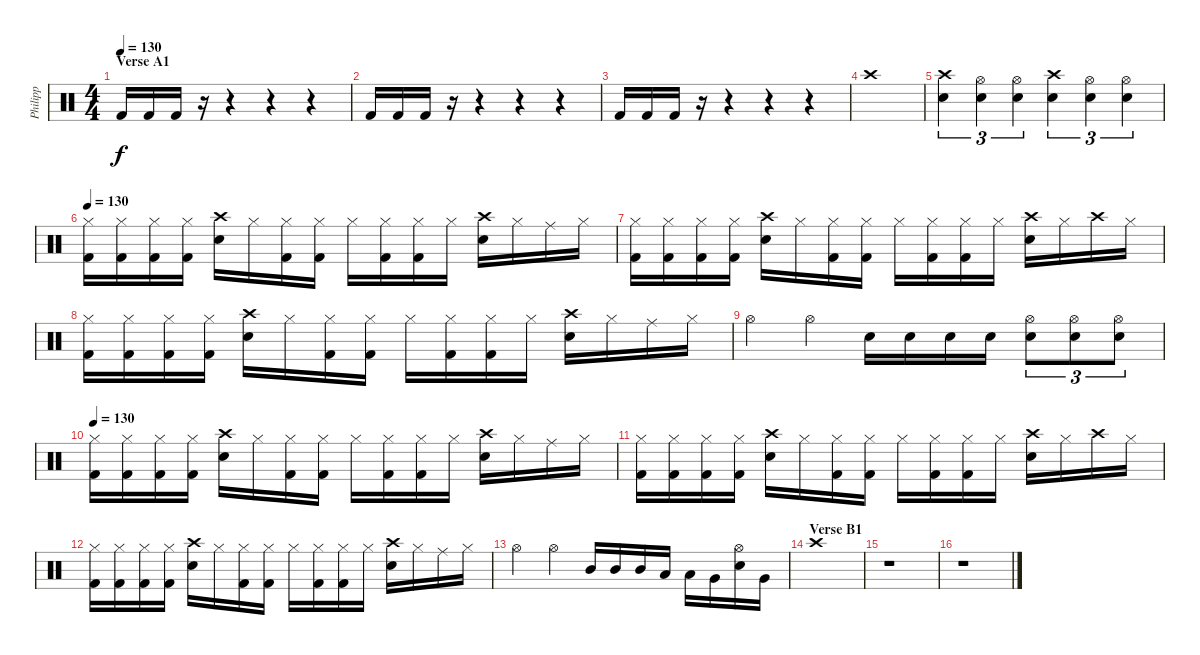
\track ("Philipp" "Philipp") {instrument percussion}
\staff {score}
\articulation defaults
\ts (4 4)
\section ("" "Verse A1")
\tempo 130
\clef neutral
\ks c "Kick (hit) 2".16{dy f} "Kick (hit) 2".16 "Kick (hit) 2".16
r.16 r.4 r.4 r.4 |
"Kick (hit) 2".16 "Kick (hit) 2".16 "Kick (hit) 2".16 r.16 r.4 r.4 r.4 |
"Kick (hit) 2".16 "Kick (hit) 2".16 "Kick (hit) 2".16 r.16 r.4 r.4 r.4 |
"Crash high (hit)".1 |
("Crash high (hit)" "Electric Snare (hit)").4{tu (3 2)} ("Hi-Hat (open)" "Electric Snare (hit)").4{tu (3 2)} ("Hi-Hat (open)" "Electric Snare (hit)").4{tu (3 2)} ("Crash high (hit)" "Electric Snare (hit)").4{tu (3 2)} ("Hi-Hat (open)" "Electric Snare (hit)").4{tu (3 2)} ("Hi-Hat (open)" "Electric Snare (hit)").4{tu (3 2)} |
\tempo 130
("Hi-Hat (closed)" "Kick (hit) 2").16 ("Hi-Hat (closed)" "Kick (hit) 2").16 ("Hi-Hat (closed)" "Kick (hit) 2").16 ("Hi-Hat (closed)" "Kick (hit) 2").16 ("Crash high (hit)" "Electric Snare (hit)").16 "Hi-Hat (closed)".16 ("Hi-Hat (closed)" "Kick (hit) 2").16 ("Hi-Hat (closed)" "Kick (hit) 2").16 "Hi-Hat (closed)".16 ("Hi-Hat (closed)" "Kick (hit) 2").16 ("Hi-Hat (closed)" "Kick (hit) 2").16 "Hi-Hat (closed)".16 ("Crash high (hit)" "Electric Snare (hit)").16 "Hi-Hat (closed)".16 "Ride (middle)".16 "Hi-Hat (closed)".16 |
("Hi-Hat (closed)" "Kick (hit) 2").16 ("Hi-Hat (closed)" "Kick (hit) 2").16 ("Hi-Hat (closed)" "Kick (hit) 2").16 ("Hi-Hat (closed)" "Kick (hit) 2").16 ("Crash high (hit)" "Electric Snare (hit)").16 "Hi-Hat (closed)".16 ("Hi-Hat (closed)" "Kick (hit) 2").16 ("Hi-Hat (closed)" "Kick (hit) 2").16 "Hi-Hat (closed)".16 ("Hi-Hat (closed)" "Kick (hit) 2").16 ("Hi-Hat (closed)" "Kick (hit) 2").16 "Hi-Hat (closed)".16 ("Crash high (hit)" "Electric Snare (hit)").16 "Hi-Hat (closed)".16 "Crash high (hit)".16 "Hi-Hat (closed)".16 |
("Hi-Hat (closed)" "Kick (hit) 2").16 ("Hi-Hat (closed)" "Kick (hit) 2").16 ("Hi-Hat (closed)" "Kick (hit) 2").16 ("Hi-Hat (closed)" "Kick (hit) 2").16 ("Crash high (hit)" "Electric Snare (hit)").16 "Hi-Hat (closed)".16 ("Hi-Hat (closed)" "Kick (hit) 2").16 ("Hi-Hat (closed)" "Kick (hit) 2").16 "Hi-Hat (closed)".16 ("Hi-Hat (closed)" "Kick (hit) 2").16 ("Hi-Hat (closed)" "Kick (hit) 2").16 "Hi-Hat (closed)".16 ("Crash high (hit)" "Electric Snare (hit)").16 "Hi-Hat (closed)".16 "Ride (middle)".16 "Hi-Hat (closed)".16 |
"Hi-Hat (open)".4 "Hi-Hat (open)".4 "Electric Snare (hit)".16 "Electric Snare (hit)".16 "Electric Snare (hit)".16 "Electric Snare (hit)".16 ("Hi-Hat (open)" "Electric Snare (hit)").8{tu (3 2)} ("Hi-Hat (open)" "Electric Snare (hit)").8{tu (3 2)} ("Hi-Hat (open)" "Electric Snare (hit)").8{tu (3 2)} |
\tempo 130
("Hi-Hat (closed)" "Kick (hit) 2").16 ("Hi-Hat (closed)" "Kick (hit) 2").16 ("Hi-Hat (closed)" "Kick (hit) 2").16 ("Hi-Hat (closed)" "Kick (hit) 2").16 ("Crash high (hit)" "Electric Snare (hit)").16 "Hi-Hat (closed)".16 ("Hi-Hat (closed)" "Kick (hit) 2").16 ("Hi-Hat (closed)" "Kick (hit) 2").16 "Hi-Hat (closed)".16 ("Hi-Hat (closed)" "Kick (hit) 2").16 ("Hi-Hat (closed)" "Kick (hit) 2").16 "Hi-Hat (closed)".16 ("Crash high (hit)" "Electric Snare (hit)").16 "Hi-Hat (closed)".16 "Ride (middle)".16 "Hi-Hat (closed)".16 |
("Hi-Hat (closed)" "Kick (hit) 2").16 ("Hi-Hat (closed)" "Kick (hit) 2").16 ("Hi-Hat (closed)" "Kick (hit) 2").16 ("Hi-Hat (closed)" "Kick (hit) 2").16 ("Crash high (hit)" "Electric Snare (hit)").16 "Hi-Hat (closed)".16 ("Hi-Hat (closed)" "Kick (hit) 2").16 ("Hi-Hat (closed)" "Kick (hit) 2").16 "Hi-Hat (closed)".16 ("Hi-Hat (closed)" "Kick (hit) 2").16 ("Hi-Hat (closed)" "Kick (hit) 2").16 "Hi-Hat (closed)".16 ("Crash high (hit)" "Electric Snare (hit)").16 "Hi-Hat (closed)".16 "Crash high (hit)".16 "Hi-Hat (closed)".16 |
("Hi-Hat (closed)" "Kick (hit) 2").16 ("Hi-Hat (closed)" "Kick (hit) 2").16 ("Hi-Hat (closed)" "Kick (hit) 2").16 ("Hi-Hat (closed)" "Kick (hit) 2").16 ("Crash high (hit)" "Electric Snare (hit)").16 "Hi-Hat (closed)".16 ("Hi-Hat (closed)" "Kick (hit) 2").16 ("Hi-Hat (closed)" "Kick (hit) 2").16 "Hi-Hat (closed)".16 ("Hi-Hat (closed)" "Kick (hit) 2").16 ("Hi-Hat (closed)" "Kick (hit) 2").16 "Hi-Hat (closed)".16 ("Crash high (hit)" "Electric Snare (hit)").16 "Hi-Hat (closed)".16 "Ride (middle)".16 "Hi-Hat (closed)".16 |
"Hi-Hat (open)".4 "Hi-Hat (open)".4 "Mid Tom (hit)".16 "Mid Tom (hit)".16 "Mid Tom (hit)".16 "Low Tom (hit)".16 "Low Tom (hit)".16 "Very Low Tom (hit)".16 ("Hi-Hat (open)" "Electric Snare (hit)").16 "Very Low Tom (hit)".16 |
\section ("" "Verse B1")
"Crash high (hit)".1 |
r.1 |
r.1
